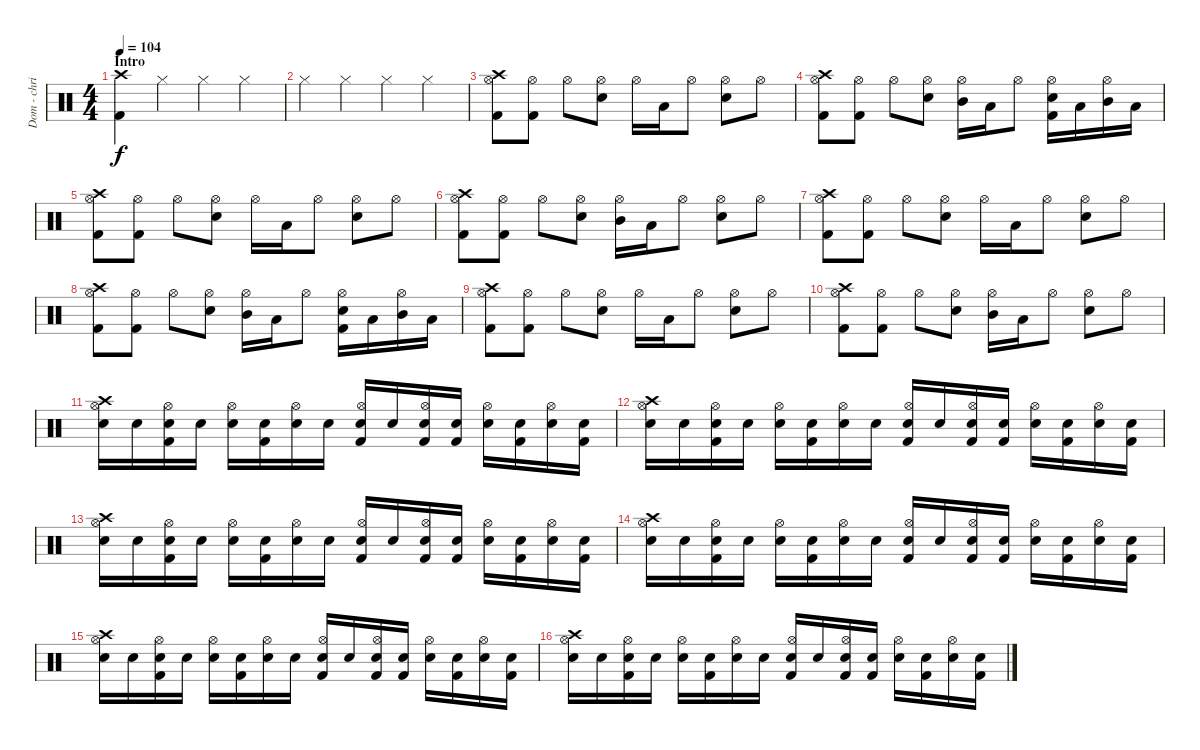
\track ("Dom - chris" "Dom - chri") {instrument percussion}
\staff {score}
\articulation defaults
\ts (4 4)
\section ("" "Intro")
\tempo 104
\clef neutral
\ks c
("Crash high (hit)" "Kick (hit) 2").4{dy f} "Hi-Hat (closed)".4 "Hi-Hat (closed)".4 "Hi-Hat (closed)".4 |
"Hi-Hat (closed)".4 "Hi-Hat (closed)".4 "Hi-Hat (closed)".4 "Hi-Hat (closed)".4 |
("Crash high (hit)" "Hi-Hat (open)" "Kick (hit) 2").8 ("Hi-Hat (open)" "Kick (hit) 2").8 "Hi-Hat (open)".8 ("Hi-Hat (open)" "Snare (hit) 2").8 "Hi-Hat (open)".16 "Low Tom (hit)".16 "Hi-Hat (open)".8 ("Hi-Hat (open)" "Snare (hit) 2").8 "Hi-Hat (open)".8 |
("Crash high (hit)" "Hi-Hat (open)" "Kick (hit) 2").8 ("Hi-Hat (open)" "Kick (hit) 2").8 "Hi-Hat (open)".8 ("Hi-Hat (open)" "Snare (hit) 2").8 ("Hi-Hat (open)" "Mid Tom (hit)").16 "Low Tom (hit)".16 "Hi-Hat (open)".8 ("Hi-Hat (open)" "Snare (hit) 2" "Kick (hit) 2").16 "Low Tom (hit)".16 ("Hi-Hat (open)" "Mid Tom (hit)").16 "Low Tom (hit)".16 |
("Crash high (hit)" "Hi-Hat (open)" "Kick (hit) 2").8 ("Hi-Hat (open)" "Kick (hit) 2").8 "Hi-Hat (open)".8 ("Hi-Hat (open)" "Snare (hit) 2").8 "Hi-Hat (open)".16 "Low Tom (hit)".16 "Hi-Hat (open)".8 ("Hi-Hat (open)" "Snare (hit) 2").8 "Hi-Hat (open)".8 |
("Crash high (hit)" "Hi-Hat (open)" "Kick (hit) 2").8 ("Hi-Hat (open)" "Kick (hit) 2").8 "Hi-Hat (open)".8 ("Hi-Hat (open)" "Snare (hit) 2").8 ("Hi-Hat (open)" "Mid Tom (hit)").16 "Low Tom (hit)".16 "Hi-Hat (open)".8 ("Hi-Hat (open)" "Snare (hit) 2").8 "Hi-Hat (open)".8 |
("Crash high (hit)" "Hi-Hat (open)" "Kick (hit) 2").8 ("Hi-Hat (open)" "Kick (hit) 2").8 "Hi-Hat (open)".8 ("Hi-Hat (open)" "Snare (hit) 2").8 "Hi-Hat (open)".16 "Low Tom (hit)".16 "Hi-Hat (open)".8 ("Hi-Hat (open)" "Snare (hit) 2").8 "Hi-Hat (open)".8 |
("Crash high (hit)" "Hi-Hat (open)" "Kick (hit) 2").8 ("Hi-Hat (open)" "Kick (hit) 2").8 "Hi-Hat (open)".8 ("Hi-Hat (open)" "Snare (hit) 2").8 ("Hi-Hat (open)" "Mid Tom (hit)").16 "Low Tom (hit)".16 "Hi-Hat (open)".8 ("Hi-Hat (open)" "Snare (hit) 2" "Kick (hit) 2").16 "Low Tom (hit)".16 ("Hi-Hat (open)" "Mid Tom (hit)").16 "Low Tom (hit)".16 |
("Crash high (hit)" "Hi-Hat (open)" "Kick (hit) 2").8 ("Hi-Hat (open)" "Kick (hit) 2").8 "Hi-Hat (open)".8 ("Hi-Hat (open)" "Snare (hit) 2").8 "Hi-Hat (open)".16 "Low Tom (hit)".16 "Hi-Hat (open)".8 ("Hi-Hat (open)" "Snare (hit) 2").8 "Hi-Hat (open)".8 |
("Crash high (hit)" "Hi-Hat (open)" "Kick (hit) 2").8 ("Hi-Hat (open)" "Kick (hit) 2").8 "Hi-Hat (open)".8 ("Hi-Hat (open)" "Snare (hit) 2").8 ("Hi-Hat (open)" "Mid Tom (hit)").16 "Low Tom (hit)".16 "Hi-Hat (open)".8 ("Hi-Hat (open)" "Snare (hit) 2").8 "Hi-Hat (open)".8 |
\section ("" "")
("Crash high (hit)" "Hi-Hat (open)" "Snare (hit) 2").16 "Snare (hit) 2"{x}.16 ("Hi-Hat (open)" "Snare (hit) 2"{x} "Kick (hit) 2").16 "Snare (hit) 2".16 ("Hi-Hat (open)" "Snare (hit) 2"{x}).16 ("Snare (hit) 2"{x} "Kick (hit) 2").16 ("Hi-Hat (open)" "Snare (hit) 2").16 "Snare (hit) 2"{x}.16 ("Hi-Hat (open)" "Snare (hit) 2"{x} "Kick (hit) 2").16 "Snare (hit) 2".16 ("Hi-Hat (open)" "Snare (hit) 2"{x} "Kick (hit) 2").16 ("Snare (hit) 2"{x} "Kick (hit) 2").16 ("Hi-Hat (open)" "Snare (hit) 2").16 ("Snare (hit) 2"{x} "Kick (hit) 2").16 ("Hi-Hat (open)" "Snare (hit) 2").16 ("Snare (hit) 2"{x} "Kick (hit) 2").16 |
("Crash high (hit)" "Hi-Hat (open)" "Snare (hit) 2").16 "Snare (hit) 2"{x}.16 ("Hi-Hat (open)" "Snare (hit) 2"{x} "Kick (hit) 2").16 "Snare (hit) 2".16 ("Hi-Hat (open)" "Snare (hit) 2"{x}).16 ("Snare (hit) 2"{x} "Kick (hit) 2").16 ("Hi-Hat (open)" "Snare (hit) 2").16 "Snare (hit) 2"{x}.16 ("Hi-Hat (open)" "Snare (hit) 2"{x} "Kick (hit) 2").16 "Snare (hit) 2".16 ("Hi-Hat (open)" "Snare (hit) 2"{x} "Kick (hit) 2").16 ("Snare (hit) 2"{x} "Kick (hit) 2").16 ("Hi-Hat (open)" "Snare (hit) 2").16 ("Snare (hit) 2"{x} "Kick (hit) 2").16 ("Hi-Hat (open)" "Snare (hit) 2").16 ("Snare (hit) 2"{x} "Kick (hit) 2").16 |
("Crash high (hit)" "Hi-Hat (open)" "Snare (hit) 2").16 "Snare (hit) 2"{x}.16 ("Hi-Hat (open)" "Snare (hit) 2"{x} "Kick (hit) 2").16 "Snare (hit) 2".16 ("Hi-Hat (open)" "Snare (hit) 2"{x}).16 ("Snare (hit) 2"{x} "Kick (hit) 2").16 ("Hi-Hat (open)" "Snare (hit) 2").16 "Snare (hit) 2"{x}.16 ("Hi-Hat (open)" "Snare (hit) 2"{x} "Kick (hit) 2").16 "Snare (hit) 2".16 ("Hi-Hat (open)" "Snare (hit) 2"{x} "Kick (hit) 2").16 ("Snare (hit) 2"{x} "Kick (hit) 2").16 ("Hi-Hat (open)" "Snare (hit) 2").16 ("Snare (hit) 2"{x} "Kick (hit) 2").16 ("Hi-Hat (open)" "Snare (hit) 2").16 ("Snare (hit) 2"{x} "Kick (hit) 2").16 |
("Crash high (hit)" "Hi-Hat (open)" "Snare (hit) 2").16 "Snare (hit) 2"{x}.16 ("Hi-Hat (open)" "Snare (hit) 2"{x} "Kick (hit) 2").16 "Snare (hit) 2".16 ("Hi-Hat (open)" "Snare (hit) 2"{x}).16 ("Snare (hit) 2"{x} "Kick (hit) 2").16 ("Hi-Hat (open)" "Snare (hit) 2").16 "Snare (hit) 2"{x}.16 ("Hi-Hat (open)" "Snare (hit) 2"{x} "Kick (hit) 2").16 "Snare (hit) 2".16 ("Hi-Hat (open)" "Snare (hit) 2"{x} "Kick (hit) 2").16 ("Snare (hit) 2"{x} "Kick (hit) 2").16 ("Hi-Hat (open)" "Snare (hit) 2").16 ("Snare (hit) 2"{x} "Kick (hit) 2").16 ("Hi-Hat (open)" "Snare (hit) 2").16 ("Snare (hit) 2"{x} "Kick (hit) 2").16 |
("Crash high (hit)" "Hi-Hat (open)" "Snare (hit) 2").16 "Snare (hit) 2"{x}.16 ("Hi-Hat (open)" "Snare (hit) 2"{x} "Kick (hit) 2").16 "Snare (hit) 2".16 ("Hi-Hat (open)" "Snare (hit) 2"{x}).16 ("Snare (hit) 2"{x} "Kick (hit) 2").16 ("Hi-Hat (open)" "Snare (hit) 2").16 "Snare (hit) 2"{x}.16 ("Hi-Hat (open)" "Snare (hit) 2"{x} "Kick (hit) 2").16 "Snare (hit) 2".16 ("Hi-Hat (open)" "Snare (hit) 2"{x} "Kick (hit) 2").16 ("Snare (hit) 2"{x} "Kick (hit) 2").16 ("Hi-Hat (open)" "Snare (hit) 2").16 ("Snare (hit) 2"{x} "Kick (hit) 2").16 ("Hi-Hat (open)" "Snare (hit) 2").16 ("Snare (hit) 2"{x} "Kick (hit) 2").16 |
("Crash high (hit)" "Hi-Hat (open)" "Snare (hit) 2").16 "Snare (hit) 2"{x}.16 ("Hi-Hat (open)" "Snare (hit) 2"{x} "Kick (hit) 2").16 "Snare (hit) 2".16 ("Hi-Hat (open)" "Snare (hit) 2"{x}).16 ("Snare (hit) 2"{x} "Kick (hit) 2").16 ("Hi-Hat (open)" "Snare (hit) 2").16 "Snare (hit) 2"{x}.16 ("Hi-Hat (open)" "Snare (hit) 2"{x} "Kick (hit) 2").16 "Snare (hit) 2".16 ("Hi-Hat (open)" "Snare (hit) 2"{x} "Kick (hit) 2").16 ("Snare (hit) 2"{x} "Kick (hit) 2").16 ("Hi-Hat (open)" "Snare (hit) 2").16 ("Snare (hit) 2"{x} "Kick (hit) 2").16 ("Hi-Hat (open)" "Snare (hit) 2").16 ("Snare (hit) 2"{x} "Kick (hit) 2").16
